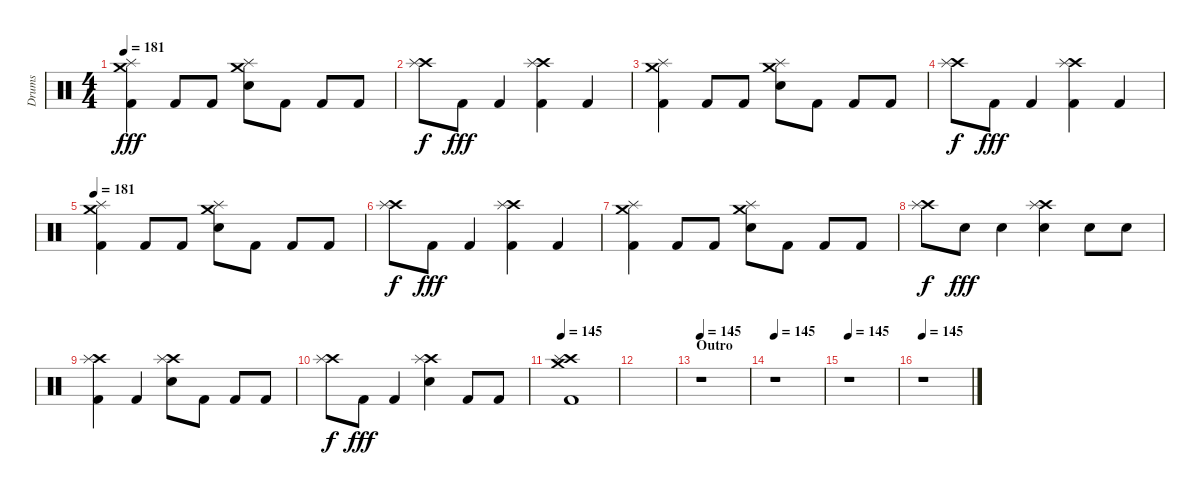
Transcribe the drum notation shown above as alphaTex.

\track ("Drums" "Drums") {instrument percussion}
\staff {score}
\articulation defaults
\ts (4 4)
\tempo 181
\clef neutral
\ks c
("Crash medium (hit)" "Splash (hit)" "Kick (hit) 2").4{dy fff} "Kick (hit) 2".8 "Kick (hit) 2".8 ("Crash medium (hit)" "Splash (hit)" "Snare (hit) 2").8 "Kick (hit) 2".8 "Kick (hit) 2".8 "Kick (hit) 2".8 |
("Crash high (hit)" "Splash (hit)").8{dy f} "Kick (hit) 2".8{dy fff} "Kick (hit) 2".4 ("Crash high (hit)" "Splash (hit)" "Kick (hit) 2").4 "Kick (hit) 2".4 |
("Crash medium (hit)" "Splash (hit)" "Kick (hit) 2").4 "Kick (hit) 2".8 "Kick (hit) 2".8 ("Crash medium (hit)" "Splash (hit)" "Snare (hit) 2").8 "Kick (hit) 2".8 "Kick (hit) 2".8 "Kick (hit) 2".8 |
("Crash high (hit)" "Splash (hit)").8{dy f} "Kick (hit) 2".8{dy fff} "Kick (hit) 2".4 ("Crash high (hit)" "Splash (hit)" "Kick (hit) 2").4 "Kick (hit) 2".4 |
\tempo 181
("Crash medium (hit)" "Splash (hit)" "Kick (hit) 2").4 "Kick (hit) 2".8 "Kick (hit) 2".8 ("Crash medium (hit)" "Splash (hit)" "Snare (hit) 2").8 "Kick (hit) 2".8 "Kick (hit) 2".8 "Kick (hit) 2".8 |
("Crash high (hit)" "Splash (hit)").8{dy f} "Kick (hit) 2".8{dy fff} "Kick (hit) 2".4 ("Crash high (hit)" "Splash (hit)" "Kick (hit) 2").4 "Kick (hit) 2".4 |
("Crash medium (hit)" "Splash (hit)" "Kick (hit) 2").4 "Kick (hit) 2".8 "Kick (hit) 2".8 ("Crash medium (hit)" "Splash (hit)" "Snare (hit) 2").8 "Kick (hit) 2".8 "Kick (hit) 2".8 "Kick (hit) 2".8 |
("Crash high (hit)" "Splash (hit)").8{dy f} "Snare (hit) 2".8{dy fff} "Snare (hit) 2".4 ("Crash high (hit)" "Splash (hit)" "Snare (hit) 2").4 "Snare (hit) 2".8 "Snare (hit) 2".8 |
("Crash high (hit)" "Splash (hit)" "Kick (hit) 2").4 "Kick (hit) 2".4 ("Crash high (hit)" "Splash (hit)" "Snare (hit) 2").8 "Kick (hit) 2".8 "Kick (hit) 2".8 "Kick (hit) 2".8 |
("Crash high (hit)" "Splash (hit)").8{dy f} "Kick (hit) 2".8{dy fff} "Kick (hit) 2".4 ("Crash high (hit)" "Splash (hit)" "Snare (hit) 2").4 "Kick (hit) 2".8 "Kick (hit) 2".8 |
\tempo 145
("Crash high (hit)" "Crash medium (hit)" "Splash (hit)" "Kick (hit) 2").1 |
|
\section ("" "Outro")
\tempo 145
r.1 |
\tempo 145
r.1 |
\tempo 145
r.1 |
\tempo 145
r.1
